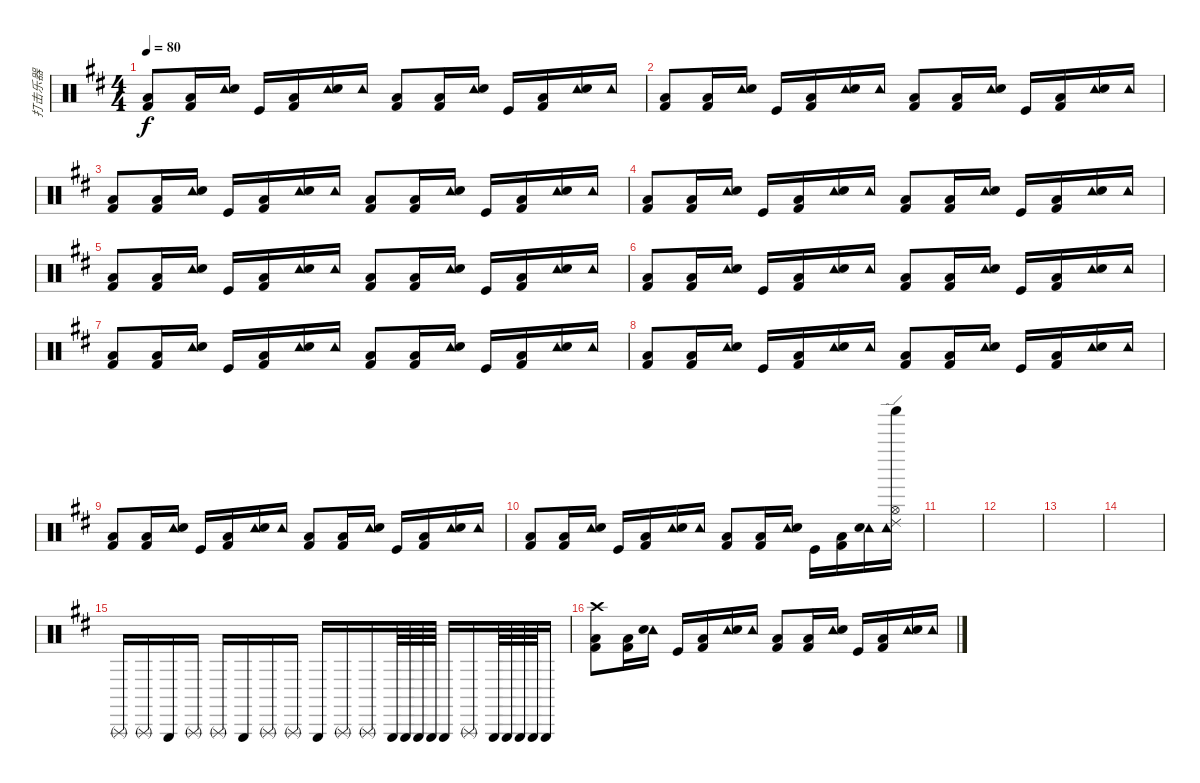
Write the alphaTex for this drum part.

\track ("打击乐器" "打击乐器") {instrument percussion}
\staff {score}
\articulation defaults
\ts (4 4)
\tempo 80
\clef neutral
\ks bminor
("Kick (hit) 2" "Low Floor Tom (hit)").8{dy f} ("Kick (hit) 2" "Low Floor Tom (hit)").16 ("Tambourine (hit)" "Electric Snare (hit)").16 "Kick (hit)".16 ("Kick (hit) 2" "Low Floor Tom (hit)").16 ("Tambourine (hit)" "Electric Snare (hit)").16 "Tambourine (hit)".16 ("Kick (hit) 2" "Low Floor Tom (hit)").8 ("Kick (hit) 2" "Low Floor Tom (hit)").16 ("Tambourine (hit)" "Electric Snare (hit)").16 "Kick (hit)".16 ("Kick (hit) 2" "Low Floor Tom (hit)").16 ("Tambourine (hit)" "Electric Snare (hit)").16 "Tambourine (hit)".16 |
("Kick (hit) 2" "Low Floor Tom (hit)").8 ("Kick (hit) 2" "Low Floor Tom (hit)").16 ("Tambourine (hit)" "Electric Snare (hit)").16 "Kick (hit)".16 ("Kick (hit) 2" "Low Floor Tom (hit)").16 ("Tambourine (hit)" "Electric Snare (hit)").16 "Tambourine (hit)".16 ("Kick (hit) 2" "Low Floor Tom (hit)").8 ("Kick (hit) 2" "Low Floor Tom (hit)").16 ("Tambourine (hit)" "Electric Snare (hit)").16 "Kick (hit)".16 ("Kick (hit) 2" "Low Floor Tom (hit)").16 ("Tambourine (hit)" "Electric Snare (hit)").16 "Tambourine (hit)".16 |
("Kick (hit) 2" "Low Floor Tom (hit)").8 ("Kick (hit) 2" "Low Floor Tom (hit)").16 ("Tambourine (hit)" "Electric Snare (hit)").16 "Kick (hit)".16 ("Kick (hit) 2" "Low Floor Tom (hit)").16 ("Tambourine (hit)" "Electric Snare (hit)").16 "Tambourine (hit)".16 ("Kick (hit) 2" "Low Floor Tom (hit)").8 ("Kick (hit) 2" "Low Floor Tom (hit)").16 ("Tambourine (hit)" "Electric Snare (hit)").16 "Kick (hit)".16 ("Kick (hit) 2" "Low Floor Tom (hit)").16 ("Tambourine (hit)" "Electric Snare (hit)").16 "Tambourine (hit)".16 |
("Kick (hit) 2" "Low Floor Tom (hit)").8 ("Kick (hit) 2" "Low Floor Tom (hit)").16 ("Tambourine (hit)" "Electric Snare (hit)").16 "Kick (hit)".16 ("Kick (hit) 2" "Low Floor Tom (hit)").16 ("Tambourine (hit)" "Electric Snare (hit)").16 "Tambourine (hit)".16 ("Kick (hit) 2" "Low Floor Tom (hit)").8 ("Kick (hit) 2" "Low Floor Tom (hit)").16 ("Tambourine (hit)" "Electric Snare (hit)").16 "Kick (hit)".16 ("Kick (hit) 2" "Low Floor Tom (hit)").16 ("Tambourine (hit)" "Electric Snare (hit)").16 "Tambourine (hit)".16 |
("Kick (hit) 2" "Low Floor Tom (hit)").8 ("Kick (hit) 2" "Low Floor Tom (hit)").16 ("Tambourine (hit)" "Electric Snare (hit)").16 "Kick (hit)".16 ("Kick (hit) 2" "Low Floor Tom (hit)").16 ("Tambourine (hit)" "Electric Snare (hit)").16 "Tambourine (hit)".16 ("Kick (hit) 2" "Low Floor Tom (hit)").8 ("Kick (hit) 2" "Low Floor Tom (hit)").16 ("Tambourine (hit)" "Electric Snare (hit)").16 "Kick (hit)".16 ("Kick (hit) 2" "Low Floor Tom (hit)").16 ("Tambourine (hit)" "Electric Snare (hit)").16 "Tambourine (hit)".16 |
("Kick (hit) 2" "Low Floor Tom (hit)").8 ("Kick (hit) 2" "Low Floor Tom (hit)").16 ("Tambourine (hit)" "Electric Snare (hit)").16 "Kick (hit)".16 ("Kick (hit) 2" "Low Floor Tom (hit)").16 ("Tambourine (hit)" "Electric Snare (hit)").16 "Tambourine (hit)".16 ("Kick (hit) 2" "Low Floor Tom (hit)").8 ("Kick (hit) 2" "Low Floor Tom (hit)").16 ("Tambourine (hit)" "Electric Snare (hit)").16 "Kick (hit)".16 ("Kick (hit) 2" "Low Floor Tom (hit)").16 ("Tambourine (hit)" "Electric Snare (hit)").16 "Tambourine (hit)".16 |
("Kick (hit) 2" "Low Floor Tom (hit)").8 ("Kick (hit) 2" "Low Floor Tom (hit)").16 ("Tambourine (hit)" "Electric Snare (hit)").16 "Kick (hit)".16 ("Kick (hit) 2" "Low Floor Tom (hit)").16 ("Tambourine (hit)" "Electric Snare (hit)").16 "Tambourine (hit)".16 ("Kick (hit) 2" "Low Floor Tom (hit)").8 ("Kick (hit) 2" "Low Floor Tom (hit)").16 ("Tambourine (hit)" "Electric Snare (hit)").16 "Kick (hit)".16 ("Kick (hit) 2" "Low Floor Tom (hit)").16 ("Tambourine (hit)" "Electric Snare (hit)").16 "Tambourine (hit)".16 |
("Kick (hit) 2" "Low Floor Tom (hit)").8 ("Kick (hit) 2" "Low Floor Tom (hit)").16 ("Tambourine (hit)" "Electric Snare (hit)").16 "Kick (hit)".16 ("Kick (hit) 2" "Low Floor Tom (hit)").16 ("Tambourine (hit)" "Electric Snare (hit)").16 "Tambourine (hit)".16 ("Kick (hit) 2" "Low Floor Tom (hit)").8 ("Kick (hit) 2" "Low Floor Tom (hit)").16 ("Tambourine (hit)" "Electric Snare (hit)").16 "Kick (hit)".16 ("Kick (hit) 2" "Low Floor Tom (hit)").16 ("Tambourine (hit)" "Electric Snare (hit)").16 "Tambourine (hit)".16 |
("Kick (hit) 2" "Low Floor Tom (hit)").8 ("Kick (hit) 2" "Low Floor Tom (hit)").16 ("Tambourine (hit)" "Electric Snare (hit)").16 "Kick (hit)".16 ("Kick (hit) 2" "Low Floor Tom (hit)").16 ("Tambourine (hit)" "Electric Snare (hit)").16 "Tambourine (hit)".16 ("Kick (hit) 2" "Low Floor Tom (hit)").8 ("Kick (hit) 2" "Low Floor Tom (hit)").16 ("Tambourine (hit)" "Electric Snare (hit)").16 "Kick (hit)".16 ("Kick (hit) 2" "Low Floor Tom (hit)").16 ("Tambourine (hit)" "Electric Snare (hit)").16 "Tambourine (hit)".16 |
("Kick (hit) 2" "Low Floor Tom (hit)").8 ("Kick (hit) 2" "Low Floor Tom (hit)").16 ("Tambourine (hit)" "Electric Snare (hit)").16 "Kick (hit)".16 ("Kick (hit) 2" "Low Floor Tom (hit)").16 ("Tambourine (hit)" "Electric Snare (hit)").16 "Tambourine (hit)".16 ("Kick (hit) 2" "Low Floor Tom (hit)").8 ("Kick (hit) 2" "Low Floor Tom (hit)").16 ("Tambourine (hit)" "Electric Snare (hit)").16 "Kick (hit)".16 ("Kick (hit) 2" "Low Floor Tom (hit)").16 ("Tambourine (hit)" "Electric Snare (hit)").16 ("Tambourine (hit)" "Shaker (hit)" "Ride (edge) 2" "Hi-Hat (open)").16 |
|
|
|
|
"Triangle (rnute)".16 "Triangle (rnute)".16 "Triangle (hit)".16 "Triangle (rnute)".16 "Triangle (rnute)".16 "Triangle (hit)".16 "Triangle (rnute)".16 "Triangle (rnute)".16 "Triangle (hit)".16 "Triangle (rnute)".16 "Triangle (rnute)".16 "Triangle (hit)".64 "Triangle (hit)".64 "Triangle (hit)".64 "Triangle (hit)".64 "Triangle (hit)".16 "Triangle (rnute)".16 "Triangle (hit)".64 "Triangle (hit)".64 "Triangle (hit)".64 "Triangle (hit)".64 "Triangle (hit)".16 |
("Crash high (hit)" "Kick (hit) 2" "Low Floor Tom (hit)").8 ("Kick (hit) 2" "Low Floor Tom (hit)").16 ("Tambourine (hit)" "Electric Snare (hit)").16 "Kick (hit)".16 ("Kick (hit) 2" "Low Floor Tom (hit)").16 ("Tambourine (hit)" "Electric Snare (hit)").16 "Tambourine (hit)".16 ("Kick (hit) 2" "Low Floor Tom (hit)").8 ("Kick (hit) 2" "Low Floor Tom (hit)").16 ("Tambourine (hit)" "Electric Snare (hit)").16 "Kick (hit)".16 ("Kick (hit) 2" "Low Floor Tom (hit)").16 ("Tambourine (hit)" "Electric Snare (hit)").16 "Tambourine (hit)".16
